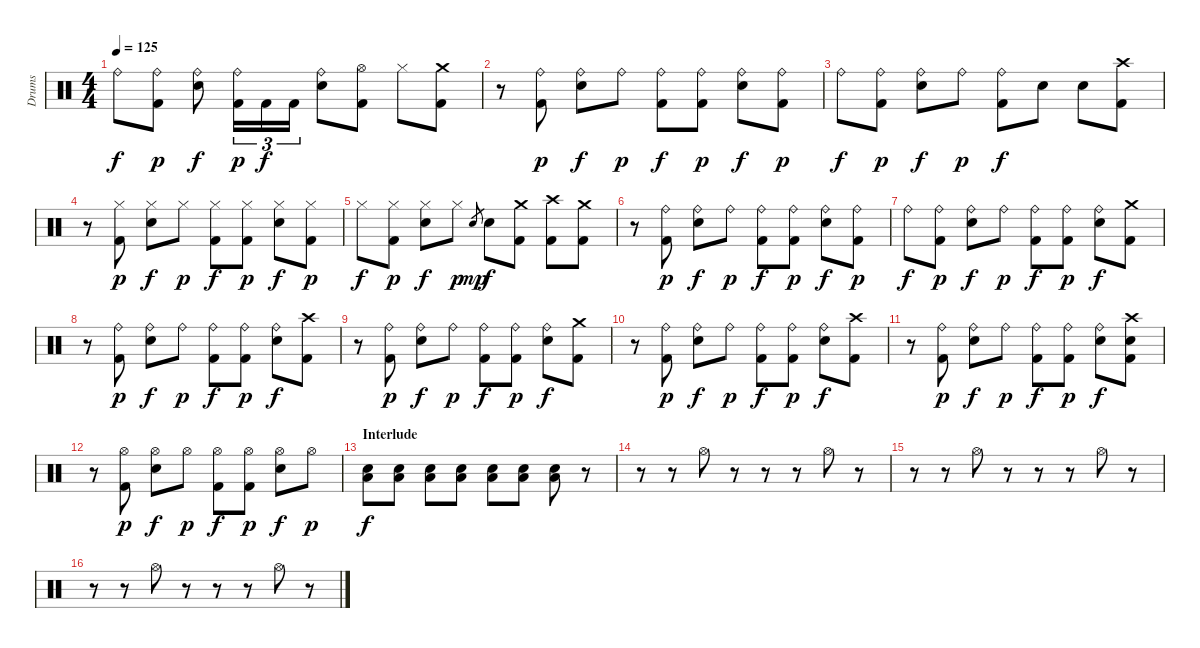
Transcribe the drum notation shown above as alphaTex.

\track ("Drums" "Drums") {instrument percussion}
\staff {score}
\articulation defaults
\ts (4 4)
\tempo 125
\clef neutral
\ks c "Ride (bell)".8{dy f}
("Ride (bell)" "Kick (hit) 2").8{dy p} ("Ride (bell)" "Snare (hit) 2").8{dy f} ("Ride (bell)" "Kick (hit) 2").16{tu (3 2) dy p} "Kick (hit) 2".16{tu (3 2) dy f} "Kick (hit) 2".16{tu (3 2)} ("Ride (bell)" "Snare (hit) 2").8 ("Hi-Hat (open)" "Kick (hit) 2").8 "Hi-Hat (closed)".8 ("Crash medium (hit)" "Kick (hit) 2").8 |
r.8 ("Ride (bell)" "Kick (hit) 2").8{dy p} ("Ride (bell)" "Snare (hit) 2").8{dy f} "Ride (bell)".8{dy p} ("Ride (bell)" "Kick (hit) 2").8{dy f} ("Ride (bell)" "Kick (hit) 2").8{dy p} ("Ride (bell)" "Snare (hit) 2").8{dy f} ("Ride (bell)" "Kick (hit) 2").8{dy p} |
"Ride (bell)".8{dy f} ("Ride (bell)" "Kick (hit) 2").8{dy p} ("Ride (bell)" "Snare (hit) 2").8{dy f} "Ride (bell)".8{dy p} ("Ride (bell)" "Kick (hit) 2").8{dy f} "Snare (hit) 2".8 "Snare (hit) 2".8 ("Crash high (hit)" "Kick (hit) 2").8 |
r.8 ("Hi-Hat (closed)" "Kick (hit) 2").8{dy p} ("Hi-Hat (closed)" "Snare (hit) 2").8{dy f} "Hi-Hat (closed)".8{dy p} ("Hi-Hat (closed)" "Kick (hit) 2").8{dy f} ("Hi-Hat (closed)" "Kick (hit) 2").8{dy p} ("Hi-Hat (closed)" "Snare (hit) 2").8{dy f} ("Hi-Hat (closed)" "Kick (hit) 2").8{dy p} |
"Hi-Hat (closed)".8{dy f} ("Hi-Hat (closed)" "Kick (hit) 2").8{dy p} ("Hi-Hat (closed)" "Snare (hit) 2").8{dy f} "Hi-Hat (closed)".8{dy p} "Snare (hit) 2".8{gr dy mp} "Snare (hit) 2".8{dy f} ("Crash medium (hit)" "Kick (hit) 2").8 ("Crash high (hit)" "Kick (hit) 2").8 ("Crash medium (hit)" "Kick (hit) 2").8 |
r.8 ("Ride (bell)" "Kick (hit) 2").8{dy p} ("Ride (bell)" "Snare (hit) 2").8{dy f} "Ride (bell)".8{dy p} ("Ride (bell)" "Kick (hit) 2").8{dy f} ("Ride (bell)" "Kick (hit) 2").8{dy p} ("Ride (bell)" "Snare (hit) 2").8{dy f} ("Ride (bell)" "Kick (hit) 2").8{dy p} |
"Ride (bell)".8{dy f} ("Ride (bell)" "Kick (hit) 2").8{dy p} ("Ride (bell)" "Snare (hit) 2").8{dy f} "Ride (bell)".8{dy p} ("Ride (bell)" "Kick (hit) 2").8{dy f} ("Ride (bell)" "Kick (hit) 2").8{dy p} ("Ride (bell)" "Snare (hit) 2").8{dy f} ("Crash medium (hit)" "Kick (hit) 2").8 |
r.8 ("Ride (bell)" "Kick (hit) 2").8{dy p} ("Ride (bell)" "Snare (hit) 2").8{dy f} "Ride (bell)".8{dy p} ("Ride (bell)" "Kick (hit) 2").8{dy f} ("Ride (bell)" "Kick (hit) 2").8{dy p} ("Ride (bell)" "Snare (hit) 2").8{dy f} ("Crash high (hit)" "Kick (hit) 2").8 |
r.8 ("Ride (bell)" "Kick (hit) 2").8{dy p} ("Ride (bell)" "Snare (hit) 2").8{dy f} "Ride (bell)".8{dy p} ("Ride (bell)" "Kick (hit) 2").8{dy f} ("Ride (bell)" "Kick (hit) 2").8{dy p} ("Ride (bell)" "Snare (hit) 2").8{dy f} ("Crash medium (hit)" "Kick (hit) 2").8 |
r.8 ("Ride (bell)" "Kick (hit) 2").8{dy p} ("Ride (bell)" "Snare (hit) 2").8{dy f} "Ride (bell)".8{dy p} ("Ride (bell)" "Kick (hit) 2").8{dy f} ("Ride (bell)" "Kick (hit) 2").8{dy p} ("Ride (bell)" "Snare (hit) 2").8{dy f} ("Crash high (hit)" "Kick (hit) 2").8 |
r.8 ("Ride (bell)" "Kick (hit) 2").8{dy p} ("Ride (bell)" "Snare (hit) 2").8{dy f} "Ride (bell)".8{dy p} ("Ride (bell)" "Kick (hit) 2").8{dy f} ("Ride (bell)" "Kick (hit) 2").8{dy p} ("Ride (bell)" "Snare (hit) 2").8{dy f} ("Crash high (hit)" "Snare (hit) 2" "Kick (hit) 2").8 |
r.8 ("Hi-Hat (open)" "Kick (hit) 2").8{dy p} ("Hi-Hat (open)" "Snare (hit) 2").8{dy f} "Hi-Hat (open)".8{dy p} ("Hi-Hat (open)" "Kick (hit) 2").8{dy f} ("Hi-Hat (open)" "Kick (hit) 2").8{dy p} ("Hi-Hat (open)" "Snare (hit) 2").8{dy f} "Hi-Hat (open)".8{dy p} |
\section ("" "Interlude")
("Snare (hit) 2" "Low Floor Tom (hit)").8{dy f} ("Snare (hit) 2" "Low Floor Tom (hit)").8 ("Snare (hit) 2" "Low Floor Tom (hit)").8 ("Snare (hit) 2" "Low Floor Tom (hit)").8 ("Snare (hit) 2" "Low Floor Tom (hit)").8 ("Snare (hit) 2" "Low Floor Tom (hit)").8 ("Snare (hit) 2" "Low Floor Tom (hit)").8 r.8 |
r.8 r.8 "Hi-Hat (open)".8 r.8 r.8 r.8 "Hi-Hat (open)".8 r.8 |
r.8 r.8 "Hi-Hat (open)".8 r.8 r.8 r.8 "Hi-Hat (open)".8 r.8 |
r.8 r.8 "Hi-Hat (open)".8 r.8 r.8 r.8 "Hi-Hat (open)".8 r.8
